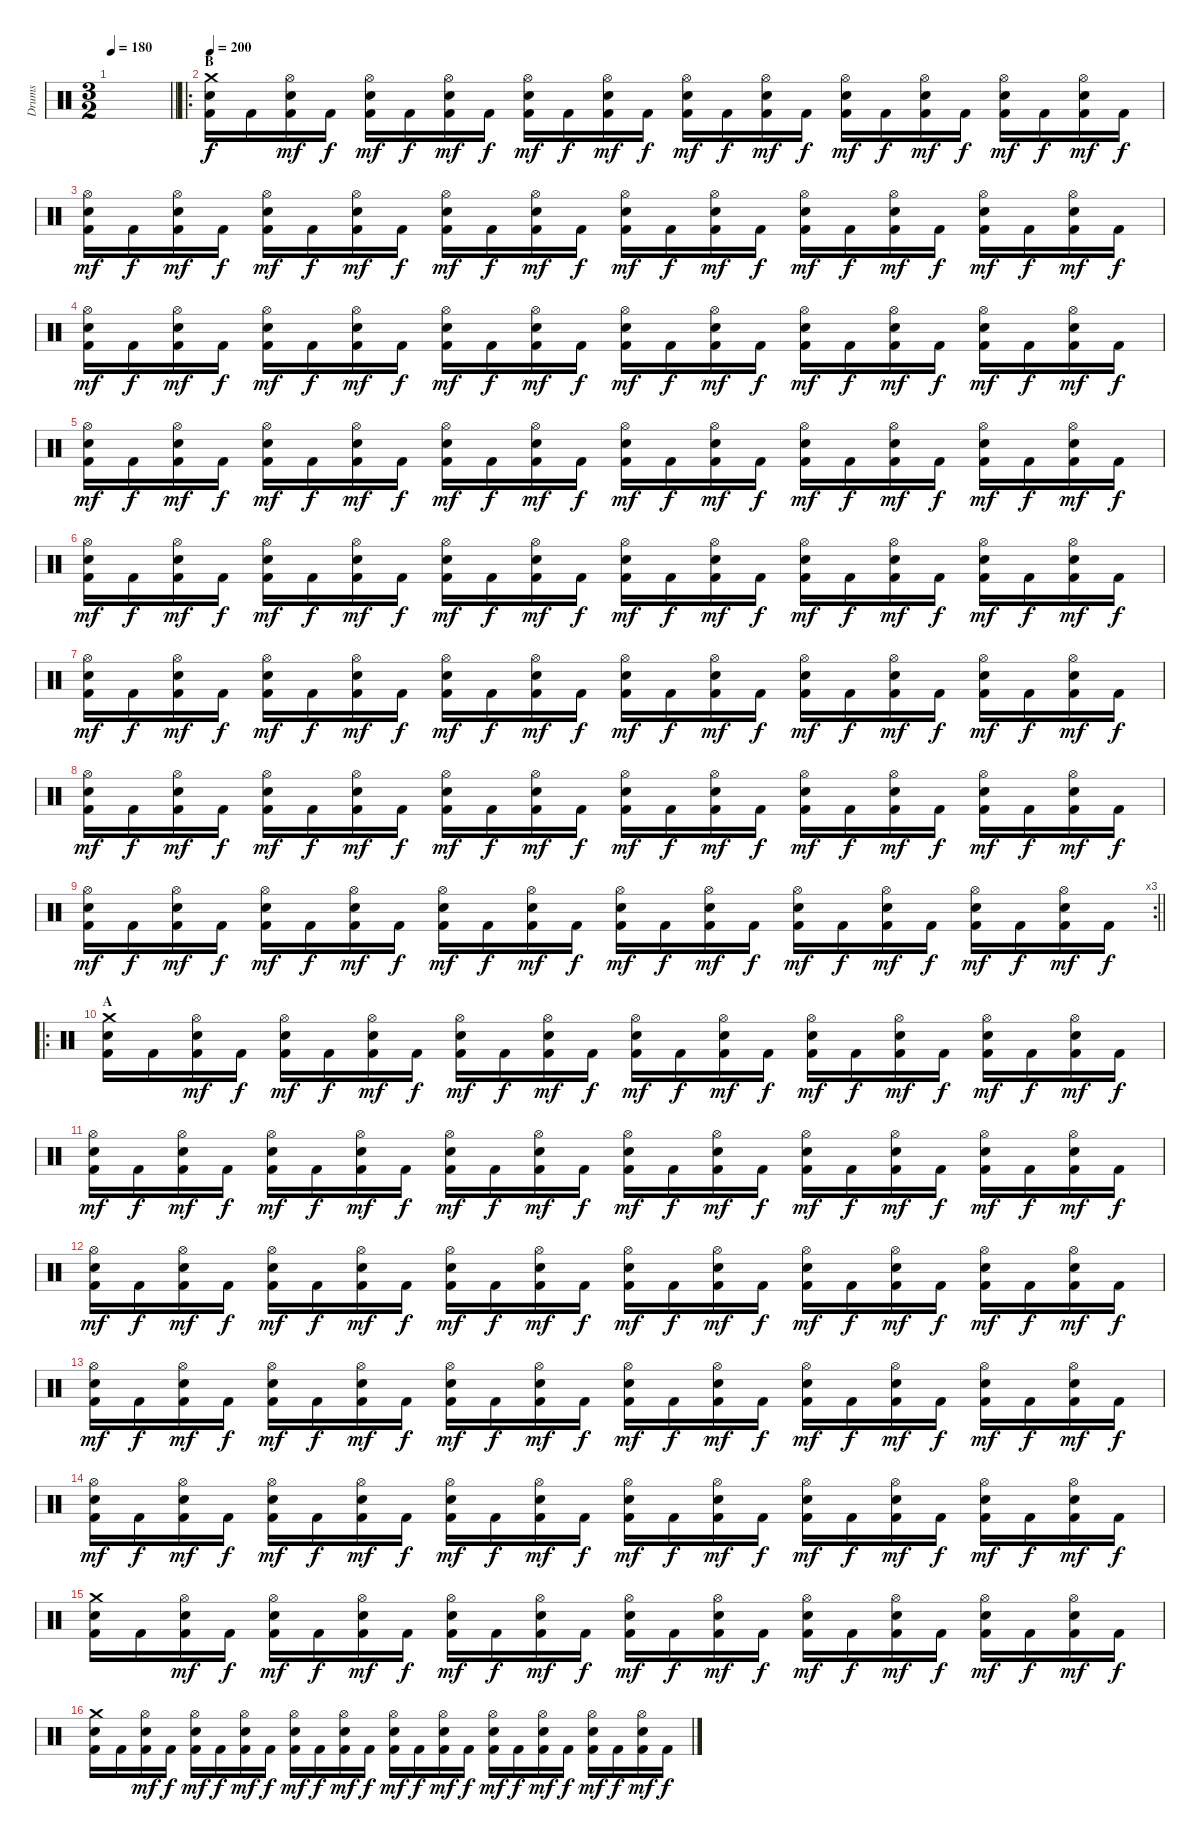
\track ("Drums" "Drums") {instrument percussion}
\staff {score}
\articulation defaults
\ts (3 2)
\tempo 180
\clef neutral
\barLineRight lightlight
\ks c
|
\ro
\section ("" "B")
\tempo 200
("Crash medium (hit)" "Electric Snare (hit)" "Kick (hit) 2").16 "Kick (hit) 2".16 ("Hi-Hat (open)" "Electric Snare (hit)" "Kick (hit) 2").16{dy mf} "Kick (hit) 2".16{dy f} ("Hi-Hat (open)" "Electric Snare (hit)" "Kick (hit) 2").16{dy mf} "Kick (hit) 2".16{dy f} ("Hi-Hat (open)" "Electric Snare (hit)" "Kick (hit) 2").16{dy mf} "Kick (hit) 2".16{dy f} ("Hi-Hat (open)" "Electric Snare (hit)" "Kick (hit) 2").16{dy mf} "Kick (hit) 2".16{dy f} ("Hi-Hat (open)" "Electric Snare (hit)" "Kick (hit) 2").16{dy mf} "Kick (hit) 2".16{dy f} ("Hi-Hat (open)" "Electric Snare (hit)" "Kick (hit) 2").16{dy mf} "Kick (hit) 2".16{dy f} ("Hi-Hat (open)" "Electric Snare (hit)" "Kick (hit) 2").16{dy mf} "Kick (hit) 2".16{dy f} ("Hi-Hat (open)" "Electric Snare (hit)" "Kick (hit) 2").16{dy mf} "Kick (hit) 2".16{dy f} ("Hi-Hat (open)" "Electric Snare (hit)" "Kick (hit) 2").16{dy mf} "Kick (hit) 2".16{dy f} ("Hi-Hat (open)" "Electric Snare (hit)" "Kick (hit) 2").16{dy mf} "Kick (hit) 2".16{dy f} ("Hi-Hat (open)" "Electric Snare (hit)" "Kick (hit) 2").16{dy mf} "Kick (hit) 2".16{dy f} |
("Hi-Hat (open)" "Electric Snare (hit)" "Kick (hit) 2").16{dy mf} "Kick (hit) 2".16{dy f} ("Hi-Hat (open)" "Electric Snare (hit)" "Kick (hit) 2").16{dy mf} "Kick (hit) 2".16{dy f} ("Hi-Hat (open)" "Electric Snare (hit)" "Kick (hit) 2").16{dy mf} "Kick (hit) 2".16{dy f} ("Hi-Hat (open)" "Electric Snare (hit)" "Kick (hit) 2").16{dy mf} "Kick (hit) 2".16{dy f} ("Hi-Hat (open)" "Electric Snare (hit)" "Kick (hit) 2").16{dy mf} "Kick (hit) 2".16{dy f} ("Hi-Hat (open)" "Electric Snare (hit)" "Kick (hit) 2").16{dy mf} "Kick (hit) 2".16{dy f} ("Hi-Hat (open)" "Electric Snare (hit)" "Kick (hit) 2").16{dy mf} "Kick (hit) 2".16{dy f} ("Hi-Hat (open)" "Electric Snare (hit)" "Kick (hit) 2").16{dy mf} "Kick (hit) 2".16{dy f} ("Hi-Hat (open)" "Electric Snare (hit)" "Kick (hit) 2").16{dy mf} "Kick (hit) 2".16{dy f} ("Hi-Hat (open)" "Electric Snare (hit)" "Kick (hit) 2").16{dy mf} "Kick (hit) 2".16{dy f} ("Hi-Hat (open)" "Electric Snare (hit)" "Kick (hit) 2").16{dy mf} "Kick (hit) 2".16{dy f} ("Hi-Hat (open)" "Electric Snare (hit)" "Kick (hit) 2").16{dy mf} "Kick (hit) 2".16{dy f} |
("Hi-Hat (open)" "Electric Snare (hit)" "Kick (hit) 2").16{dy mf} "Kick (hit) 2".16{dy f} ("Hi-Hat (open)" "Electric Snare (hit)" "Kick (hit) 2").16{dy mf} "Kick (hit) 2".16{dy f} ("Hi-Hat (open)" "Electric Snare (hit)" "Kick (hit) 2").16{dy mf} "Kick (hit) 2".16{dy f} ("Hi-Hat (open)" "Electric Snare (hit)" "Kick (hit) 2").16{dy mf} "Kick (hit) 2".16{dy f} ("Hi-Hat (open)" "Electric Snare (hit)" "Kick (hit) 2").16{dy mf} "Kick (hit) 2".16{dy f} ("Hi-Hat (open)" "Electric Snare (hit)" "Kick (hit) 2").16{dy mf} "Kick (hit) 2".16{dy f} ("Hi-Hat (open)" "Electric Snare (hit)" "Kick (hit) 2").16{dy mf} "Kick (hit) 2".16{dy f} ("Hi-Hat (open)" "Electric Snare (hit)" "Kick (hit) 2").16{dy mf} "Kick (hit) 2".16{dy f} ("Hi-Hat (open)" "Electric Snare (hit)" "Kick (hit) 2").16{dy mf} "Kick (hit) 2".16{dy f} ("Hi-Hat (open)" "Electric Snare (hit)" "Kick (hit) 2").16{dy mf} "Kick (hit) 2".16{dy f} ("Hi-Hat (open)" "Electric Snare (hit)" "Kick (hit) 2").16{dy mf} "Kick (hit) 2".16{dy f} ("Hi-Hat (open)" "Electric Snare (hit)" "Kick (hit) 2").16{dy mf} "Kick (hit) 2".16{dy f} |
("Hi-Hat (open)" "Electric Snare (hit)" "Kick (hit) 2").16{dy mf} "Kick (hit) 2".16{dy f} ("Hi-Hat (open)" "Electric Snare (hit)" "Kick (hit) 2").16{dy mf} "Kick (hit) 2".16{dy f} ("Hi-Hat (open)" "Electric Snare (hit)" "Kick (hit) 2").16{dy mf} "Kick (hit) 2".16{dy f} ("Hi-Hat (open)" "Electric Snare (hit)" "Kick (hit) 2").16{dy mf} "Kick (hit) 2".16{dy f} ("Hi-Hat (open)" "Electric Snare (hit)" "Kick (hit) 2").16{dy mf} "Kick (hit) 2".16{dy f} ("Hi-Hat (open)" "Electric Snare (hit)" "Kick (hit) 2").16{dy mf} "Kick (hit) 2".16{dy f} ("Hi-Hat (open)" "Electric Snare (hit)" "Kick (hit) 2").16{dy mf} "Kick (hit) 2".16{dy f} ("Hi-Hat (open)" "Electric Snare (hit)" "Kick (hit) 2").16{dy mf} "Kick (hit) 2".16{dy f} ("Hi-Hat (open)" "Electric Snare (hit)" "Kick (hit) 2").16{dy mf} "Kick (hit) 2".16{dy f} ("Hi-Hat (open)" "Electric Snare (hit)" "Kick (hit) 2").16{dy mf} "Kick (hit) 2".16{dy f} ("Hi-Hat (open)" "Electric Snare (hit)" "Kick (hit) 2").16{dy mf} "Kick (hit) 2".16{dy f} ("Hi-Hat (open)" "Electric Snare (hit)" "Kick (hit) 2").16{dy mf} "Kick (hit) 2".16{dy f} |
("Hi-Hat (open)" "Electric Snare (hit)" "Kick (hit) 2").16{dy mf} "Kick (hit) 2".16{dy f} ("Hi-Hat (open)" "Electric Snare (hit)" "Kick (hit) 2").16{dy mf} "Kick (hit) 2".16{dy f} ("Hi-Hat (open)" "Electric Snare (hit)" "Kick (hit) 2").16{dy mf} "Kick (hit) 2".16{dy f} ("Hi-Hat (open)" "Electric Snare (hit)" "Kick (hit) 2").16{dy mf} "Kick (hit) 2".16{dy f} ("Hi-Hat (open)" "Electric Snare (hit)" "Kick (hit) 2").16{dy mf} "Kick (hit) 2".16{dy f} ("Hi-Hat (open)" "Electric Snare (hit)" "Kick (hit) 2").16{dy mf} "Kick (hit) 2".16{dy f} ("Hi-Hat (open)" "Electric Snare (hit)" "Kick (hit) 2").16{dy mf} "Kick (hit) 2".16{dy f} ("Hi-Hat (open)" "Electric Snare (hit)" "Kick (hit) 2").16{dy mf} "Kick (hit) 2".16{dy f} ("Hi-Hat (open)" "Electric Snare (hit)" "Kick (hit) 2").16{dy mf} "Kick (hit) 2".16{dy f} ("Hi-Hat (open)" "Electric Snare (hit)" "Kick (hit) 2").16{dy mf} "Kick (hit) 2".16{dy f} ("Hi-Hat (open)" "Electric Snare (hit)" "Kick (hit) 2").16{dy mf} "Kick (hit) 2".16{dy f} ("Hi-Hat (open)" "Electric Snare (hit)" "Kick (hit) 2").16{dy mf} "Kick (hit) 2".16{dy f} |
("Hi-Hat (open)" "Electric Snare (hit)" "Kick (hit) 2").16{dy mf} "Kick (hit) 2".16{dy f} ("Hi-Hat (open)" "Electric Snare (hit)" "Kick (hit) 2").16{dy mf} "Kick (hit) 2".16{dy f} ("Hi-Hat (open)" "Electric Snare (hit)" "Kick (hit) 2").16{dy mf} "Kick (hit) 2".16{dy f} ("Hi-Hat (open)" "Electric Snare (hit)" "Kick (hit) 2").16{dy mf} "Kick (hit) 2".16{dy f} ("Hi-Hat (open)" "Electric Snare (hit)" "Kick (hit) 2").16{dy mf} "Kick (hit) 2".16{dy f} ("Hi-Hat (open)" "Electric Snare (hit)" "Kick (hit) 2").16{dy mf} "Kick (hit) 2".16{dy f} ("Hi-Hat (open)" "Electric Snare (hit)" "Kick (hit) 2").16{dy mf} "Kick (hit) 2".16{dy f} ("Hi-Hat (open)" "Electric Snare (hit)" "Kick (hit) 2").16{dy mf} "Kick (hit) 2".16{dy f} ("Hi-Hat (open)" "Electric Snare (hit)" "Kick (hit) 2").16{dy mf} "Kick (hit) 2".16{dy f} ("Hi-Hat (open)" "Electric Snare (hit)" "Kick (hit) 2").16{dy mf} "Kick (hit) 2".16{dy f} ("Hi-Hat (open)" "Electric Snare (hit)" "Kick (hit) 2").16{dy mf} "Kick (hit) 2".16{dy f} ("Hi-Hat (open)" "Electric Snare (hit)" "Kick (hit) 2").16{dy mf} "Kick (hit) 2".16{dy f} |
("Hi-Hat (open)" "Electric Snare (hit)" "Kick (hit) 2").16{dy mf} "Kick (hit) 2".16{dy f} ("Hi-Hat (open)" "Electric Snare (hit)" "Kick (hit) 2").16{dy mf} "Kick (hit) 2".16{dy f} ("Hi-Hat (open)" "Electric Snare (hit)" "Kick (hit) 2").16{dy mf} "Kick (hit) 2".16{dy f} ("Hi-Hat (open)" "Electric Snare (hit)" "Kick (hit) 2").16{dy mf} "Kick (hit) 2".16{dy f} ("Hi-Hat (open)" "Electric Snare (hit)" "Kick (hit) 2").16{dy mf} "Kick (hit) 2".16{dy f} ("Hi-Hat (open)" "Electric Snare (hit)" "Kick (hit) 2").16{dy mf} "Kick (hit) 2".16{dy f} ("Hi-Hat (open)" "Electric Snare (hit)" "Kick (hit) 2").16{dy mf} "Kick (hit) 2".16{dy f} ("Hi-Hat (open)" "Electric Snare (hit)" "Kick (hit) 2").16{dy mf} "Kick (hit) 2".16{dy f} ("Hi-Hat (open)" "Electric Snare (hit)" "Kick (hit) 2").16{dy mf} "Kick (hit) 2".16{dy f} ("Hi-Hat (open)" "Electric Snare (hit)" "Kick (hit) 2").16{dy mf} "Kick (hit) 2".16{dy f} ("Hi-Hat (open)" "Electric Snare (hit)" "Kick (hit) 2").16{dy mf} "Kick (hit) 2".16{dy f} ("Hi-Hat (open)" "Electric Snare (hit)" "Kick (hit) 2").16{dy mf} "Kick (hit) 2".16{dy f} |
\rc 3
\barLineRight lightlight
("Hi-Hat (open)" "Electric Snare (hit)" "Kick (hit) 2").16{dy mf} "Kick (hit) 2".16{dy f} ("Hi-Hat (open)" "Electric Snare (hit)" "Kick (hit) 2").16{dy mf} "Kick (hit) 2".16{dy f} ("Hi-Hat (open)" "Electric Snare (hit)" "Kick (hit) 2").16{dy mf} "Kick (hit) 2".16{dy f} ("Hi-Hat (open)" "Electric Snare (hit)" "Kick (hit) 2").16{dy mf} "Kick (hit) 2".16{dy f} ("Hi-Hat (open)" "Electric Snare (hit)" "Kick (hit) 2").16{dy mf} "Kick (hit) 2".16{dy f} ("Hi-Hat (open)" "Electric Snare (hit)" "Kick (hit) 2").16{dy mf} "Kick (hit) 2".16{dy f} ("Hi-Hat (open)" "Electric Snare (hit)" "Kick (hit) 2").16{dy mf} "Kick (hit) 2".16{dy f} ("Hi-Hat (open)" "Electric Snare (hit)" "Kick (hit) 2").16{dy mf} "Kick (hit) 2".16{dy f} ("Hi-Hat (open)" "Electric Snare (hit)" "Kick (hit) 2").16{dy mf} "Kick (hit) 2".16{dy f} ("Hi-Hat (open)" "Electric Snare (hit)" "Kick (hit) 2").16{dy mf} "Kick (hit) 2".16{dy f} ("Hi-Hat (open)" "Electric Snare (hit)" "Kick (hit) 2").16{dy mf} "Kick (hit) 2".16{dy f} ("Hi-Hat (open)" "Electric Snare (hit)" "Kick (hit) 2").16{dy mf} "Kick (hit) 2".16{dy f} |
\ro
\section ("" "A")
("Crash medium (hit)" "Electric Snare (hit)" "Kick (hit) 2").16 "Kick (hit) 2".16 ("Hi-Hat (open)" "Electric Snare (hit)" "Kick (hit) 2").16{dy mf} "Kick (hit) 2".16{dy f} ("Hi-Hat (open)" "Electric Snare (hit)" "Kick (hit) 2").16{dy mf} "Kick (hit) 2".16{dy f} ("Hi-Hat (open)" "Electric Snare (hit)" "Kick (hit) 2").16{dy mf} "Kick (hit) 2".16{dy f} ("Hi-Hat (open)" "Electric Snare (hit)" "Kick (hit) 2").16{dy mf} "Kick (hit) 2".16{dy f} ("Hi-Hat (open)" "Electric Snare (hit)" "Kick (hit) 2").16{dy mf} "Kick (hit) 2".16{dy f} ("Hi-Hat (open)" "Electric Snare (hit)" "Kick (hit) 2").16{dy mf} "Kick (hit) 2".16{dy f} ("Hi-Hat (open)" "Electric Snare (hit)" "Kick (hit) 2").16{dy mf} "Kick (hit) 2".16{dy f} ("Hi-Hat (open)" "Electric Snare (hit)" "Kick (hit) 2").16{dy mf} "Kick (hit) 2".16{dy f} ("Hi-Hat (open)" "Electric Snare (hit)" "Kick (hit) 2").16{dy mf} "Kick (hit) 2".16{dy f} ("Hi-Hat (open)" "Electric Snare (hit)" "Kick (hit) 2").16{dy mf} "Kick (hit) 2".16{dy f} ("Hi-Hat (open)" "Electric Snare (hit)" "Kick (hit) 2").16{dy mf} "Kick (hit) 2".16{dy f} |
("Hi-Hat (open)" "Electric Snare (hit)" "Kick (hit) 2").16{dy mf} "Kick (hit) 2".16{dy f} ("Hi-Hat (open)" "Electric Snare (hit)" "Kick (hit) 2").16{dy mf} "Kick (hit) 2".16{dy f} ("Hi-Hat (open)" "Electric Snare (hit)" "Kick (hit) 2").16{dy mf} "Kick (hit) 2".16{dy f} ("Hi-Hat (open)" "Electric Snare (hit)" "Kick (hit) 2").16{dy mf} "Kick (hit) 2".16{dy f} ("Hi-Hat (open)" "Electric Snare (hit)" "Kick (hit) 2").16{dy mf} "Kick (hit) 2".16{dy f} ("Hi-Hat (open)" "Electric Snare (hit)" "Kick (hit) 2").16{dy mf} "Kick (hit) 2".16{dy f} ("Hi-Hat (open)" "Electric Snare (hit)" "Kick (hit) 2").16{dy mf} "Kick (hit) 2".16{dy f} ("Hi-Hat (open)" "Electric Snare (hit)" "Kick (hit) 2").16{dy mf} "Kick (hit) 2".16{dy f} ("Hi-Hat (open)" "Electric Snare (hit)" "Kick (hit) 2").16{dy mf} "Kick (hit) 2".16{dy f} ("Hi-Hat (open)" "Electric Snare (hit)" "Kick (hit) 2").16{dy mf} "Kick (hit) 2".16{dy f} ("Hi-Hat (open)" "Electric Snare (hit)" "Kick (hit) 2").16{dy mf} "Kick (hit) 2".16{dy f} ("Hi-Hat (open)" "Electric Snare (hit)" "Kick (hit) 2").16{dy mf} "Kick (hit) 2".16{dy f} |
("Hi-Hat (open)" "Electric Snare (hit)" "Kick (hit) 2").16{dy mf} "Kick (hit) 2".16{dy f} ("Hi-Hat (open)" "Electric Snare (hit)" "Kick (hit) 2").16{dy mf} "Kick (hit) 2".16{dy f} ("Hi-Hat (open)" "Electric Snare (hit)" "Kick (hit) 2").16{dy mf} "Kick (hit) 2".16{dy f} ("Hi-Hat (open)" "Electric Snare (hit)" "Kick (hit) 2").16{dy mf} "Kick (hit) 2".16{dy f} ("Hi-Hat (open)" "Electric Snare (hit)" "Kick (hit) 2").16{dy mf} "Kick (hit) 2".16{dy f} ("Hi-Hat (open)" "Electric Snare (hit)" "Kick (hit) 2").16{dy mf} "Kick (hit) 2".16{dy f} ("Hi-Hat (open)" "Electric Snare (hit)" "Kick (hit) 2").16{dy mf} "Kick (hit) 2".16{dy f} ("Hi-Hat (open)" "Electric Snare (hit)" "Kick (hit) 2").16{dy mf} "Kick (hit) 2".16{dy f} ("Hi-Hat (open)" "Electric Snare (hit)" "Kick (hit) 2").16{dy mf} "Kick (hit) 2".16{dy f} ("Hi-Hat (open)" "Electric Snare (hit)" "Kick (hit) 2").16{dy mf} "Kick (hit) 2".16{dy f} ("Hi-Hat (open)" "Electric Snare (hit)" "Kick (hit) 2").16{dy mf} "Kick (hit) 2".16{dy f} ("Hi-Hat (open)" "Electric Snare (hit)" "Kick (hit) 2").16{dy mf} "Kick (hit) 2".16{dy f} |
("Hi-Hat (open)" "Electric Snare (hit)" "Kick (hit) 2").16{dy mf} "Kick (hit) 2".16{dy f} ("Hi-Hat (open)" "Electric Snare (hit)" "Kick (hit) 2").16{dy mf} "Kick (hit) 2".16{dy f} ("Hi-Hat (open)" "Electric Snare (hit)" "Kick (hit) 2").16{dy mf} "Kick (hit) 2".16{dy f} ("Hi-Hat (open)" "Electric Snare (hit)" "Kick (hit) 2").16{dy mf} "Kick (hit) 2".16{dy f} ("Hi-Hat (open)" "Electric Snare (hit)" "Kick (hit) 2").16{dy mf} "Kick (hit) 2".16{dy f} ("Hi-Hat (open)" "Electric Snare (hit)" "Kick (hit) 2").16{dy mf} "Kick (hit) 2".16{dy f} ("Hi-Hat (open)" "Electric Snare (hit)" "Kick (hit) 2").16{dy mf} "Kick (hit) 2".16{dy f} ("Hi-Hat (open)" "Electric Snare (hit)" "Kick (hit) 2").16{dy mf} "Kick (hit) 2".16{dy f} ("Hi-Hat (open)" "Electric Snare (hit)" "Kick (hit) 2").16{dy mf} "Kick (hit) 2".16{dy f} ("Hi-Hat (open)" "Electric Snare (hit)" "Kick (hit) 2").16{dy mf} "Kick (hit) 2".16{dy f} ("Hi-Hat (open)" "Electric Snare (hit)" "Kick (hit) 2").16{dy mf} "Kick (hit) 2".16{dy f} ("Hi-Hat (open)" "Electric Snare (hit)" "Kick (hit) 2").16{dy mf} "Kick (hit) 2".16{dy f} |
("Hi-Hat (open)" "Electric Snare (hit)" "Kick (hit) 2").16{dy mf} "Kick (hit) 2".16{dy f} ("Hi-Hat (open)" "Electric Snare (hit)" "Kick (hit) 2").16{dy mf} "Kick (hit) 2".16{dy f} ("Hi-Hat (open)" "Electric Snare (hit)" "Kick (hit) 2").16{dy mf} "Kick (hit) 2".16{dy f} ("Hi-Hat (open)" "Electric Snare (hit)" "Kick (hit) 2").16{dy mf} "Kick (hit) 2".16{dy f} ("Hi-Hat (open)" "Electric Snare (hit)" "Kick (hit) 2").16{dy mf} "Kick (hit) 2".16{dy f} ("Hi-Hat (open)" "Electric Snare (hit)" "Kick (hit) 2").16{dy mf} "Kick (hit) 2".16{dy f} ("Hi-Hat (open)" "Electric Snare (hit)" "Kick (hit) 2").16{dy mf} "Kick (hit) 2".16{dy f} ("Hi-Hat (open)" "Electric Snare (hit)" "Kick (hit) 2").16{dy mf} "Kick (hit) 2".16{dy f} ("Hi-Hat (open)" "Electric Snare (hit)" "Kick (hit) 2").16{dy mf} "Kick (hit) 2".16{dy f} ("Hi-Hat (open)" "Electric Snare (hit)" "Kick (hit) 2").16{dy mf} "Kick (hit) 2".16{dy f} ("Hi-Hat (open)" "Electric Snare (hit)" "Kick (hit) 2").16{dy mf} "Kick (hit) 2".16{dy f} ("Hi-Hat (open)" "Electric Snare (hit)" "Kick (hit) 2").16{dy mf} "Kick (hit) 2".16{dy f} |
("Crash medium (hit)" "Electric Snare (hit)" "Kick (hit) 2").16 "Kick (hit) 2".16 ("Hi-Hat (open)" "Electric Snare (hit)" "Kick (hit) 2").16{dy mf} "Kick (hit) 2".16{dy f} ("Hi-Hat (open)" "Electric Snare (hit)" "Kick (hit) 2").16{dy mf} "Kick (hit) 2".16{dy f} ("Hi-Hat (open)" "Electric Snare (hit)" "Kick (hit) 2").16{dy mf} "Kick (hit) 2".16{dy f} ("Hi-Hat (open)" "Electric Snare (hit)" "Kick (hit) 2").16{dy mf} "Kick (hit) 2".16{dy f} ("Hi-Hat (open)" "Electric Snare (hit)" "Kick (hit) 2").16{dy mf} "Kick (hit) 2".16{dy f} ("Hi-Hat (open)" "Electric Snare (hit)" "Kick (hit) 2").16{dy mf} "Kick (hit) 2".16{dy f} ("Hi-Hat (open)" "Electric Snare (hit)" "Kick (hit) 2").16{dy mf} "Kick (hit) 2".16{dy f} ("Hi-Hat (open)" "Electric Snare (hit)" "Kick (hit) 2").16{dy mf} "Kick (hit) 2".16{dy f} ("Hi-Hat (open)" "Electric Snare (hit)" "Kick (hit) 2").16{dy mf} "Kick (hit) 2".16{dy f} ("Hi-Hat (open)" "Electric Snare (hit)" "Kick (hit) 2").16{dy mf} "Kick (hit) 2".16{dy f} ("Hi-Hat (open)" "Electric Snare (hit)" "Kick (hit) 2").16{dy mf} "Kick (hit) 2".16{dy f} |
("Crash medium (hit)" "Electric Snare (hit)" "Kick (hit) 2").16 "Kick (hit) 2".16 ("Hi-Hat (open)" "Electric Snare (hit)" "Kick (hit) 2").16{dy mf} "Kick (hit) 2".16{dy f} ("Hi-Hat (open)" "Electric Snare (hit)" "Kick (hit) 2").16{dy mf} "Kick (hit) 2".16{dy f} ("Hi-Hat (open)" "Electric Snare (hit)" "Kick (hit) 2").16{dy mf} "Kick (hit) 2".16{dy f} ("Hi-Hat (open)" "Electric Snare (hit)" "Kick (hit) 2").16{dy mf} "Kick (hit) 2".16{dy f} ("Hi-Hat (open)" "Electric Snare (hit)" "Kick (hit) 2").16{dy mf} "Kick (hit) 2".16{dy f} ("Hi-Hat (open)" "Electric Snare (hit)" "Kick (hit) 2").16{dy mf} "Kick (hit) 2".16{dy f} ("Hi-Hat (open)" "Electric Snare (hit)" "Kick (hit) 2").16{dy mf} "Kick (hit) 2".16{dy f} ("Hi-Hat (open)" "Electric Snare (hit)" "Kick (hit) 2").16{dy mf} "Kick (hit) 2".16{dy f} ("Hi-Hat (open)" "Electric Snare (hit)" "Kick (hit) 2").16{dy mf} "Kick (hit) 2".16{dy f} ("Hi-Hat (open)" "Electric Snare (hit)" "Kick (hit) 2").16{dy mf} "Kick (hit) 2".16{dy f} ("Hi-Hat (open)" "Electric Snare (hit)" "Kick (hit) 2").16{dy mf} "Kick (hit) 2".16{dy f}
